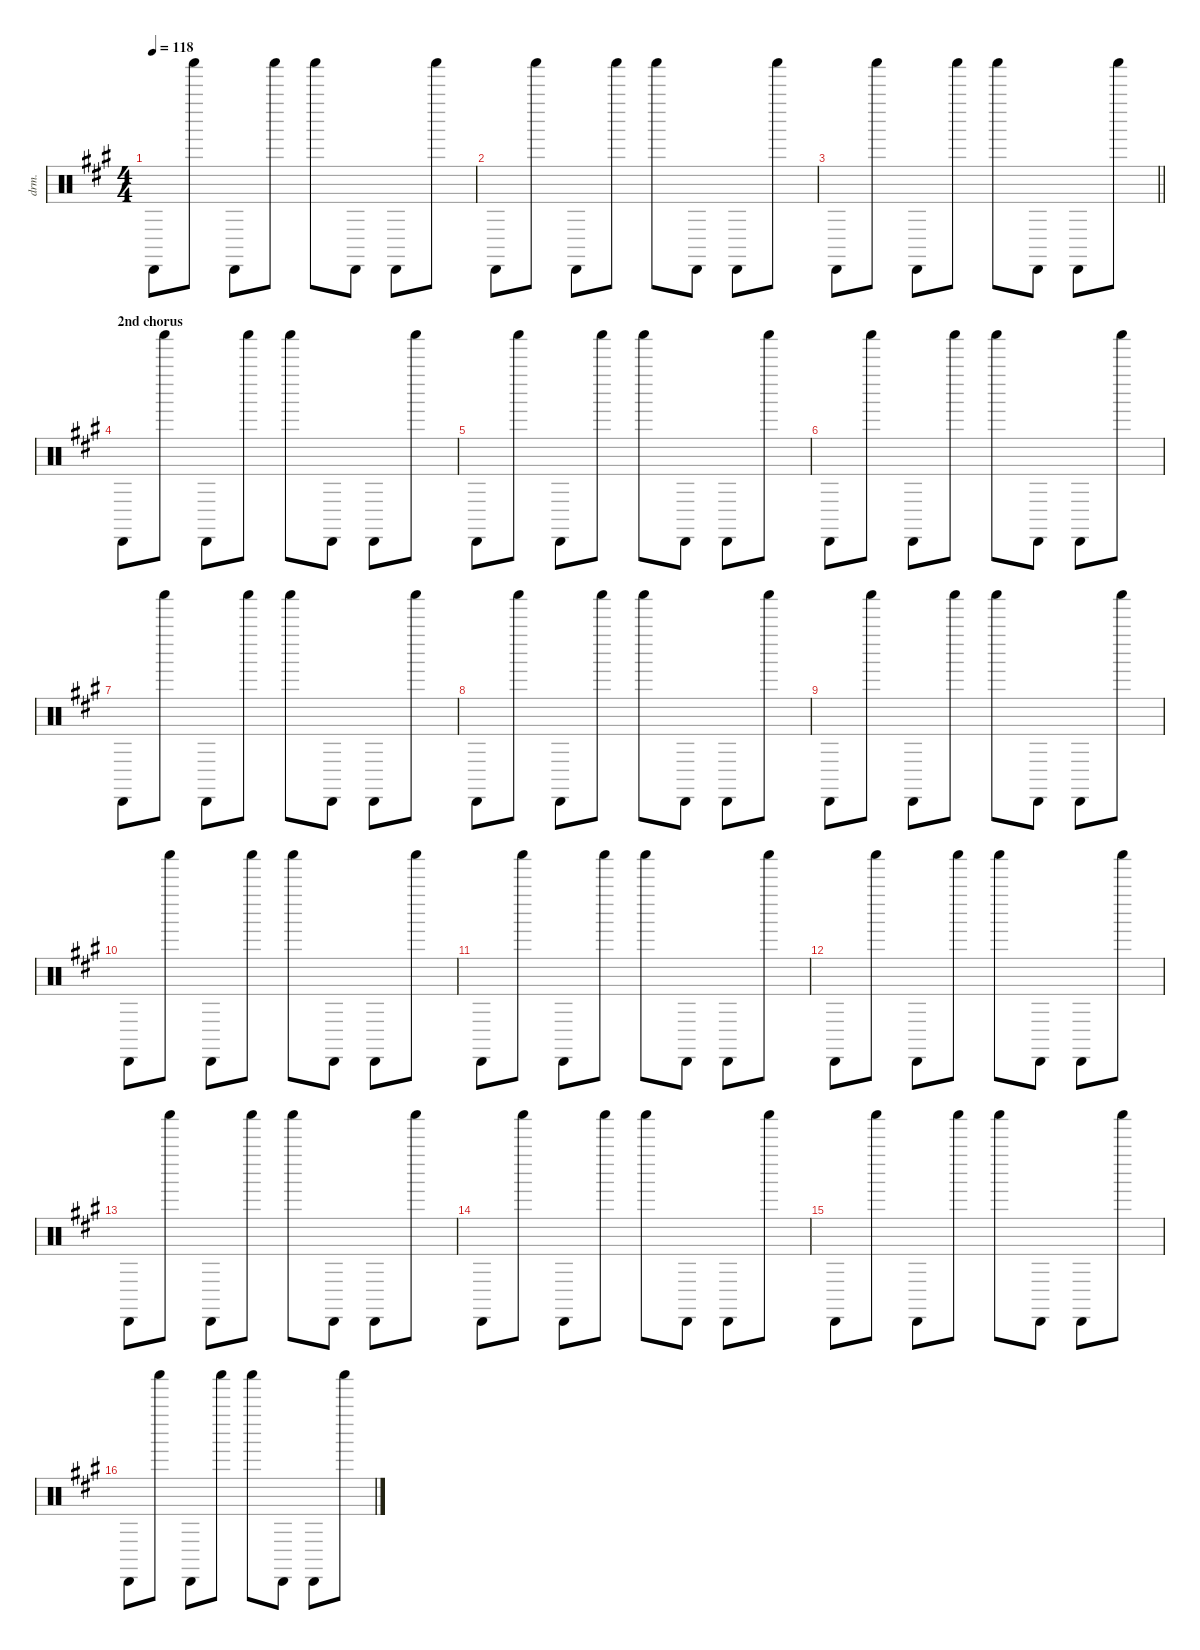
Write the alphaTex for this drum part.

\defaultSystemsLayout 4
\hideDynamics
\bracketExtendMode nobrackets
\otherSystemsTrackNameOrientation horizontal
\track ("shaker" "drm.") {instrument percussion}
\staff {score}
\articulation defaults
\ts (4 4)
\tempo 118
\clef neutral
\ks f#minor "Cabasa (hit)"{acc forcenatural}.8{dy f} "Shaker (hit)"{acc forcenatural}.8 "Cabasa (hit)"{acc forcenatural}.8{dy mp} "Shaker (hit)"{acc forcenatural}.8{dy f} "Shaker (hit)"{acc forcenatural}.8{dy p} "Cabasa (hit)"{acc forcenatural}.8{dy f} "Cabasa (hit)"{acc forcenatural}.8 "Shaker (hit)"{acc forcenatural}.8
|
"Cabasa (hit)"{acc forcenatural}.8 "Shaker (hit)"{acc forcenatural}.8 "Cabasa (hit)"{acc forcenatural}.8{dy mp} "Shaker (hit)"{acc forcenatural}.8{dy f} "Shaker (hit)"{acc forcenatural}.8{dy p} "Cabasa (hit)"{acc forcenatural}.8{dy f} "Cabasa (hit)"{acc forcenatural}.8 "Shaker (hit)"{acc forcenatural}.8 |
\barLineRight lightlight "Cabasa (hit)"{acc forcenatural}.8 "Shaker (hit)"{acc forcenatural}.8 "Cabasa (hit)"{acc forcenatural}.8{dy mp} "Shaker (hit)"{acc forcenatural}.8{dy f} "Shaker (hit)"{acc forcenatural}.8{dy p} "Cabasa (hit)"{acc forcenatural}.8{dy f} "Cabasa (hit)"{acc forcenatural}.8 "Shaker (hit)"{acc forcenatural}.8
|
\section ("" "2nd chorus")
"Cabasa (hit)"{acc forcenatural}.8 "Shaker (hit)"{acc forcenatural}.8 "Cabasa (hit)"{acc forcenatural}.8{dy mp} "Shaker (hit)"{acc forcenatural}.8{dy f} "Shaker (hit)"{acc forcenatural}.8{dy p} "Cabasa (hit)"{acc forcenatural}.8{dy f} "Cabasa (hit)"{acc forcenatural}.8 "Shaker (hit)"{acc forcenatural}.8 |
"Cabasa (hit)"{acc forcenatural}.8 "Shaker (hit)"{acc forcenatural}.8 "Cabasa (hit)"{acc forcenatural}.8{dy mp} "Shaker (hit)"{acc forcenatural}.8{dy f} "Shaker (hit)"{acc forcenatural}.8{dy p} "Cabasa (hit)"{acc forcenatural}.8{dy f} "Cabasa (hit)"{acc forcenatural}.8 "Shaker (hit)"{acc forcenatural}.8 |
"Cabasa (hit)"{acc forcenatural}.8 "Shaker (hit)"{acc forcenatural}.8 "Cabasa (hit)"{acc forcenatural}.8{dy mp} "Shaker (hit)"{acc forcenatural}.8{dy f} "Shaker (hit)"{acc forcenatural}.8{dy p} "Cabasa (hit)"{acc forcenatural}.8{dy f} "Cabasa (hit)"{acc forcenatural}.8 "Shaker (hit)"{acc forcenatural}.8 |
"Cabasa (hit)"{acc forcenatural}.8 "Shaker (hit)"{acc forcenatural}.8 "Cabasa (hit)"{acc forcenatural}.8{dy mp} "Shaker (hit)"{acc forcenatural}.8{dy f} "Shaker (hit)"{acc forcenatural}.8{dy p} "Cabasa (hit)"{acc forcenatural}.8{dy f} "Cabasa (hit)"{acc forcenatural}.8 "Shaker (hit)"{acc forcenatural}.8 |
"Cabasa (hit)"{acc forcenatural}.8 "Shaker (hit)"{acc forcenatural}.8 "Cabasa (hit)"{acc forcenatural}.8{dy mp} "Shaker (hit)"{acc forcenatural}.8{dy f} "Shaker (hit)"{acc forcenatural}.8{dy p} "Cabasa (hit)"{acc forcenatural}.8{dy f} "Cabasa (hit)"{acc forcenatural}.8 "Shaker (hit)"{acc forcenatural}.8 |
"Cabasa (hit)"{acc forcenatural}.8 "Shaker (hit)"{acc forcenatural}.8 "Cabasa (hit)"{acc forcenatural}.8{dy mp} "Shaker (hit)"{acc forcenatural}.8{dy f} "Shaker (hit)"{acc forcenatural}.8{dy p} "Cabasa (hit)"{acc forcenatural}.8{dy f} "Cabasa (hit)"{acc forcenatural}.8 "Shaker (hit)"{acc forcenatural}.8 |
"Cabasa (hit)"{acc forcenatural}.8 "Shaker (hit)"{acc forcenatural}.8 "Cabasa (hit)"{acc forcenatural}.8{dy mp} "Shaker (hit)"{acc forcenatural}.8{dy f} "Shaker (hit)"{acc forcenatural}.8{dy p} "Cabasa (hit)"{acc forcenatural}.8{dy f} "Cabasa (hit)"{acc forcenatural}.8 "Shaker (hit)"{acc forcenatural}.8 |
"Cabasa (hit)"{acc forcenatural}.8 "Shaker (hit)"{acc forcenatural}.8 "Cabasa (hit)"{acc forcenatural}.8{dy mp} "Shaker (hit)"{acc forcenatural}.8{dy f} "Shaker (hit)"{acc forcenatural}.8{dy p} "Cabasa (hit)"{acc forcenatural}.8{dy f} "Cabasa (hit)"{acc forcenatural}.8 "Shaker (hit)"{acc forcenatural}.8 |
"Cabasa (hit)"{acc forcenatural}.8 "Shaker (hit)"{acc forcenatural}.8 "Cabasa (hit)"{acc forcenatural}.8{dy mp} "Shaker (hit)"{acc forcenatural}.8{dy f} "Shaker (hit)"{acc forcenatural}.8{dy p} "Cabasa (hit)"{acc forcenatural}.8{dy f} "Cabasa (hit)"{acc forcenatural}.8 "Shaker (hit)"{acc forcenatural}.8 |
"Cabasa (hit)"{acc forcenatural}.8 "Shaker (hit)"{acc forcenatural}.8 "Cabasa (hit)"{acc forcenatural}.8{dy mp} "Shaker (hit)"{acc forcenatural}.8{dy f} "Shaker (hit)"{acc forcenatural}.8{dy p} "Cabasa (hit)"{acc forcenatural}.8{dy f} "Cabasa (hit)"{acc forcenatural}.8 "Shaker (hit)"{acc forcenatural}.8 |
"Cabasa (hit)"{acc forcenatural}.8 "Shaker (hit)"{acc forcenatural}.8 "Cabasa (hit)"{acc forcenatural}.8{dy mp} "Shaker (hit)"{acc forcenatural}.8{dy f} "Shaker (hit)"{acc forcenatural}.8{dy p} "Cabasa (hit)"{acc forcenatural}.8{dy f} "Cabasa (hit)"{acc forcenatural}.8 "Shaker (hit)"{acc forcenatural}.8 |
"Cabasa (hit)"{acc forcenatural}.8 "Shaker (hit)"{acc forcenatural}.8 "Cabasa (hit)"{acc forcenatural}.8{dy mp} "Shaker (hit)"{acc forcenatural}.8{dy f} "Shaker (hit)"{acc forcenatural}.8{dy p} "Cabasa (hit)"{acc forcenatural}.8{dy f} "Cabasa (hit)"{acc forcenatural}.8 "Shaker (hit)"{acc forcenatural}.8 |
"Cabasa (hit)"{acc forcenatural}.8 "Shaker (hit)"{acc forcenatural}.8 "Cabasa (hit)"{acc forcenatural}.8{dy mp} "Shaker (hit)"{acc forcenatural}.8{dy f} "Shaker (hit)"{acc forcenatural}.8{dy p} "Cabasa (hit)"{acc forcenatural}.8{dy f} "Cabasa (hit)"{acc forcenatural}.8 "Shaker (hit)"{acc forcenatural}.8
